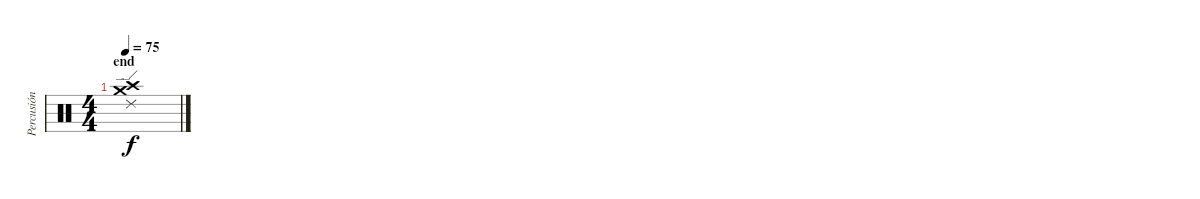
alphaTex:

\track ("Percusión" "Percusión") {instrument percussion}
\staff {score}
\articulation defaults
\ts (4 4)
\section ("" "end")
\tempo 75
\clef neutral
\ks c
("Crash high (hit)" "Ride (edge) 2" "Crash medium (hit)").1{dy f}
